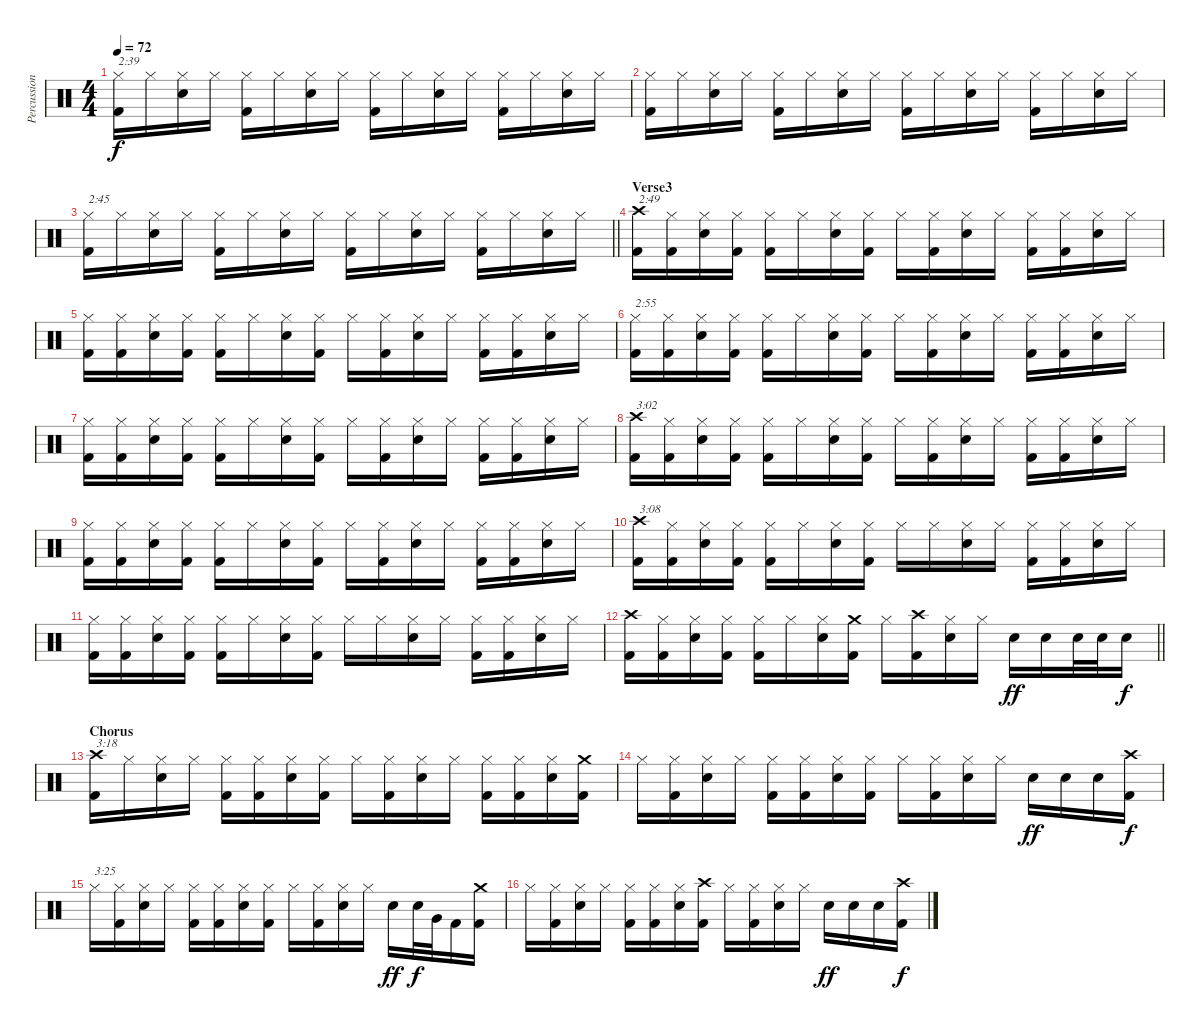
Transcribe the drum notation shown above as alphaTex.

\track ("Percussion" "Percussion") {instrument percussion}
\staff {score}
\articulation defaults
\ts (4 4)
\tempo 72
\clef neutral
\ks c
("Hi-Hat (closed)" "Kick (hit) 2").16{txt "2:39" dy f} "Hi-Hat (closed)".16 ("Hi-Hat (closed)" "Snare (hit) 2").16 "Hi-Hat (closed)".16 ("Hi-Hat (closed)" "Kick (hit) 2").16 "Hi-Hat (closed)".16 ("Hi-Hat (closed)" "Snare (hit) 2").16 "Hi-Hat (closed)".16 ("Hi-Hat (closed)" "Kick (hit) 2").16 "Hi-Hat (closed)".16 ("Hi-Hat (closed)" "Snare (hit) 2").16 "Hi-Hat (closed)".16 ("Hi-Hat (closed)" "Kick (hit) 2").16 "Hi-Hat (closed)".16 ("Hi-Hat (closed)" "Snare (hit) 2").16 "Hi-Hat (closed)".16 |
("Hi-Hat (closed)" "Kick (hit) 2").16 "Hi-Hat (closed)".16 ("Hi-Hat (closed)" "Snare (hit) 2").16 "Hi-Hat (closed)".16 ("Hi-Hat (closed)" "Kick (hit) 2").16 "Hi-Hat (closed)".16 ("Hi-Hat (closed)" "Snare (hit) 2").16 "Hi-Hat (closed)".16 ("Hi-Hat (closed)" "Kick (hit) 2").16 "Hi-Hat (closed)".16 ("Hi-Hat (closed)" "Snare (hit) 2").16 "Hi-Hat (closed)".16 ("Hi-Hat (closed)" "Kick (hit) 2").16 "Hi-Hat (closed)".16 ("Hi-Hat (closed)" "Snare (hit) 2").16 "Hi-Hat (closed)".16 |
\barLineRight lightlight
("Hi-Hat (closed)" "Kick (hit) 2").16{txt "2:45"} "Hi-Hat (closed)".16 ("Hi-Hat (closed)" "Snare (hit) 2").16 "Hi-Hat (closed)".16 ("Hi-Hat (closed)" "Kick (hit) 2").16 "Hi-Hat (closed)".16 ("Hi-Hat (closed)" "Snare (hit) 2").16 "Hi-Hat (closed)".16 ("Hi-Hat (closed)" "Kick (hit) 2").16 "Hi-Hat (closed)".16 ("Hi-Hat (closed)" "Snare (hit) 2").16 "Hi-Hat (closed)".16 ("Hi-Hat (closed)" "Kick (hit) 2").16 "Hi-Hat (closed)".16 ("Hi-Hat (closed)" "Snare (hit) 2").16 "Hi-Hat (closed)".16 |
\section ("" "Verse3")
("Crash high (hit)" "Kick (hit) 2").16{txt "2:49"} ("Hi-Hat (closed)" "Kick (hit) 2").16 ("Hi-Hat (closed)" "Snare (hit) 2").16 ("Hi-Hat (closed)" "Kick (hit) 2").16 ("Hi-Hat (closed)" "Kick (hit) 2").16 "Hi-Hat (closed)".16 ("Hi-Hat (closed)" "Snare (hit) 2").16 ("Hi-Hat (closed)" "Kick (hit) 2").16 "Hi-Hat (closed)".16 ("Hi-Hat (closed)" "Kick (hit) 2").16 ("Hi-Hat (closed)" "Snare (hit) 2").16 "Hi-Hat (closed)".16 ("Hi-Hat (closed)" "Kick (hit) 2").16 ("Hi-Hat (closed)" "Kick (hit) 2").16 ("Hi-Hat (closed)" "Snare (hit) 2").16 "Hi-Hat (closed)".16 |
("Hi-Hat (closed)" "Kick (hit) 2").16 ("Hi-Hat (closed)" "Kick (hit) 2").16 ("Hi-Hat (closed)" "Snare (hit) 2").16 ("Hi-Hat (closed)" "Kick (hit) 2").16 ("Hi-Hat (closed)" "Kick (hit) 2").16 "Hi-Hat (closed)".16 ("Hi-Hat (closed)" "Snare (hit) 2").16 ("Hi-Hat (closed)" "Kick (hit) 2").16 "Hi-Hat (closed)".16 ("Hi-Hat (closed)" "Kick (hit) 2").16 ("Hi-Hat (closed)" "Snare (hit) 2").16 "Hi-Hat (closed)".16 ("Hi-Hat (closed)" "Kick (hit) 2").16 ("Hi-Hat (closed)" "Kick (hit) 2").16 ("Hi-Hat (closed)" "Snare (hit) 2").16 "Hi-Hat (closed)".16 |
("Hi-Hat (closed)" "Kick (hit) 2").16{txt "2:55"} ("Hi-Hat (closed)" "Kick (hit) 2").16 ("Hi-Hat (closed)" "Snare (hit) 2").16 ("Hi-Hat (closed)" "Kick (hit) 2").16 ("Hi-Hat (closed)" "Kick (hit) 2").16 "Hi-Hat (closed)".16 ("Hi-Hat (closed)" "Snare (hit) 2").16 ("Hi-Hat (closed)" "Kick (hit) 2").16 "Hi-Hat (closed)".16 ("Hi-Hat (closed)" "Kick (hit) 2").16 ("Hi-Hat (closed)" "Snare (hit) 2").16 "Hi-Hat (closed)".16 ("Hi-Hat (closed)" "Kick (hit) 2").16 ("Hi-Hat (closed)" "Kick (hit) 2").16 ("Hi-Hat (closed)" "Snare (hit) 2").16 "Hi-Hat (closed)".16 |
("Hi-Hat (closed)" "Kick (hit) 2").16 ("Hi-Hat (closed)" "Kick (hit) 2").16 ("Hi-Hat (closed)" "Snare (hit) 2").16 ("Hi-Hat (closed)" "Kick (hit) 2").16 ("Hi-Hat (closed)" "Kick (hit) 2").16 "Hi-Hat (closed)".16 ("Hi-Hat (closed)" "Snare (hit) 2").16 ("Hi-Hat (closed)" "Kick (hit) 2").16 "Hi-Hat (closed)".16 ("Hi-Hat (closed)" "Kick (hit) 2").16 ("Hi-Hat (closed)" "Snare (hit) 2").16 "Hi-Hat (closed)".16 ("Hi-Hat (closed)" "Kick (hit) 2").16 ("Hi-Hat (closed)" "Kick (hit) 2").16 ("Hi-Hat (closed)" "Snare (hit) 2").16 "Hi-Hat (closed)".16 |
("Crash high (hit)" "Kick (hit) 2").16{txt "3:02"} ("Hi-Hat (closed)" "Kick (hit) 2").16 ("Hi-Hat (closed)" "Snare (hit) 2").16 ("Hi-Hat (closed)" "Kick (hit) 2").16 ("Hi-Hat (closed)" "Kick (hit) 2").16 "Hi-Hat (closed)".16 ("Hi-Hat (closed)" "Snare (hit) 2").16 ("Hi-Hat (closed)" "Kick (hit) 2").16 "Hi-Hat (closed)".16 ("Hi-Hat (closed)" "Kick (hit) 2").16 ("Hi-Hat (closed)" "Snare (hit) 2").16 "Hi-Hat (closed)".16 ("Hi-Hat (closed)" "Kick (hit) 2").16 ("Hi-Hat (closed)" "Kick (hit) 2").16 ("Hi-Hat (closed)" "Snare (hit) 2").16 "Hi-Hat (closed)".16 |
("Hi-Hat (closed)" "Kick (hit) 2").16 ("Hi-Hat (closed)" "Kick (hit) 2").16 ("Hi-Hat (closed)" "Snare (hit) 2").16 ("Hi-Hat (closed)" "Kick (hit) 2").16 ("Hi-Hat (closed)" "Kick (hit) 2").16 "Hi-Hat (closed)".16 ("Hi-Hat (closed)" "Snare (hit) 2").16 ("Hi-Hat (closed)" "Kick (hit) 2").16 "Hi-Hat (closed)".16 ("Hi-Hat (closed)" "Kick (hit) 2").16 ("Hi-Hat (closed)" "Snare (hit) 2").16 "Hi-Hat (closed)".16 ("Hi-Hat (closed)" "Kick (hit) 2").16 ("Hi-Hat (closed)" "Kick (hit) 2").16 ("Hi-Hat (closed)" "Snare (hit) 2").16 "Hi-Hat (closed)".16 |
("Crash high (hit)" "Kick (hit) 2").16{txt "3:08"} ("Hi-Hat (closed)" "Kick (hit) 2").16 ("Hi-Hat (closed)" "Snare (hit) 2").16 ("Hi-Hat (closed)" "Kick (hit) 2").16 ("Hi-Hat (closed)" "Kick (hit) 2").16 "Hi-Hat (closed)".16 ("Hi-Hat (closed)" "Snare (hit) 2").16 ("Hi-Hat (closed)" "Kick (hit) 2").16 "Hi-Hat (closed)".16 "Hi-Hat (closed)".16 ("Hi-Hat (closed)" "Snare (hit) 2").16 "Hi-Hat (closed)".16 ("Hi-Hat (closed)" "Kick (hit) 2").16 ("Hi-Hat (closed)" "Kick (hit) 2").16 ("Hi-Hat (closed)" "Snare (hit) 2").16 "Hi-Hat (closed)".16 |
("Hi-Hat (closed)" "Kick (hit) 2").16 ("Hi-Hat (closed)" "Kick (hit) 2").16 ("Hi-Hat (closed)" "Snare (hit) 2").16 ("Hi-Hat (closed)" "Kick (hit) 2").16 ("Hi-Hat (closed)" "Kick (hit) 2").16 "Hi-Hat (closed)".16 ("Hi-Hat (closed)" "Snare (hit) 2").16 ("Hi-Hat (closed)" "Kick (hit) 2").16 "Hi-Hat (closed)".16 "Hi-Hat (closed)".16 ("Hi-Hat (closed)" "Snare (hit) 2").16 "Hi-Hat (closed)".16 ("Hi-Hat (closed)" "Kick (hit) 2").16 ("Hi-Hat (closed)" "Kick (hit) 2").16 ("Hi-Hat (closed)" "Snare (hit) 2").16 "Hi-Hat (closed)".16 |
\barLineRight lightlight
("Crash high (hit)" "Kick (hit) 2").16 ("Hi-Hat (closed)" "Kick (hit) 2").16 ("Hi-Hat (closed)" "Snare (hit) 2").16 ("Hi-Hat (closed)" "Kick (hit) 2").16 ("Hi-Hat (closed)" "Kick (hit) 2").16 "Hi-Hat (closed)".16 ("Hi-Hat (closed)" "Snare (hit) 2").16 ("Crash medium (hit)" "Kick (hit) 2").16 "Hi-Hat (closed)".16 ("Crash high (hit)" "Kick (hit) 2").16 ("Hi-Hat (closed)" "Snare (hit) 2").16 "Hi-Hat (closed)".16 "Snare (hit) 2".16{dy ff} "Snare (hit) 2".16 "Snare (hit) 2".32 "Snare (hit) 2".32 "Snare (hit) 2".16{dy f} |
\section ("" "Chorus")
("Crash high (hit)" "Kick (hit) 2").16{txt "3:18"} "Hi-Hat (closed)".16 ("Hi-Hat (closed)" "Snare (hit) 2").16 "Hi-Hat (closed)".16 ("Hi-Hat (closed)" "Kick (hit) 2").16 ("Hi-Hat (closed)" "Kick (hit) 2").16 ("Hi-Hat (closed)" "Snare (hit) 2").16 ("Hi-Hat (closed)" "Kick (hit) 2").16 "Hi-Hat (closed)".16 ("Hi-Hat (closed)" "Kick (hit) 2").16 ("Hi-Hat (closed)" "Snare (hit) 2").16 "Hi-Hat (closed)".16 ("Hi-Hat (closed)" "Kick (hit) 2").16 ("Hi-Hat (closed)" "Kick (hit) 2").16 ("Hi-Hat (closed)" "Snare (hit) 2").16 ("Crash medium (hit)" "Kick (hit) 2").16 |
"Hi-Hat (closed)".16 ("Hi-Hat (closed)" "Kick (hit) 2").16 ("Hi-Hat (closed)" "Snare (hit) 2").16 "Hi-Hat (closed)".16 ("Hi-Hat (closed)" "Kick (hit) 2").16 ("Hi-Hat (closed)" "Kick (hit) 2").16 ("Hi-Hat (closed)" "Snare (hit) 2").16 ("Hi-Hat (closed)" "Kick (hit) 2").16 "Hi-Hat (closed)".16 ("Hi-Hat (closed)" "Kick (hit) 2").16 ("Hi-Hat (closed)" "Snare (hit) 2").16 "Hi-Hat (closed)".16 "Snare (hit) 2".16{dy ff} "Snare (hit) 2".16 "Snare (hit) 2".16 ("Crash high (hit)" "Kick (hit) 2").16{dy f} |
"Hi-Hat (closed)".16{txt "3:25"} ("Hi-Hat (closed)" "Kick (hit) 2").16 ("Hi-Hat (closed)" "Snare (hit) 2").16 "Hi-Hat (closed)".16 ("Hi-Hat (closed)" "Kick (hit) 2").16 ("Hi-Hat (closed)" "Kick (hit) 2").16 ("Hi-Hat (closed)" "Snare (hit) 2").16 ("Hi-Hat (closed)" "Kick (hit) 2").16 "Hi-Hat (closed)".16 ("Hi-Hat (closed)" "Kick (hit) 2").16 ("Hi-Hat (closed)" "Snare (hit) 2").16 "Hi-Hat (closed)".16 "Snare (hit) 2".16{dy ff} "Snare (hit) 2".32{dy f} "Very Low Tom (hit)".32 "Kick (hit) 2".16 ("Crash medium (hit)" "Kick (hit) 2").16 |
"Hi-Hat (closed)".16 ("Hi-Hat (closed)" "Kick (hit) 2").16 ("Hi-Hat (closed)" "Snare (hit) 2").16 "Hi-Hat (closed)".16 ("Hi-Hat (closed)" "Kick (hit) 2").16 ("Hi-Hat (closed)" "Kick (hit) 2").16 ("Hi-Hat (closed)" "Snare (hit) 2").16 ("Crash high (hit)" "Kick (hit) 2").16 "Hi-Hat (closed)".16 ("Hi-Hat (closed)" "Kick (hit) 2").16 ("Hi-Hat (closed)" "Snare (hit) 2").16 "Hi-Hat (closed)".16 "Snare (hit) 2".16{dy ff} "Snare (hit) 2".16 "Snare (hit) 2".16 ("Crash high (hit)" "Kick (hit) 2").16{dy f}
